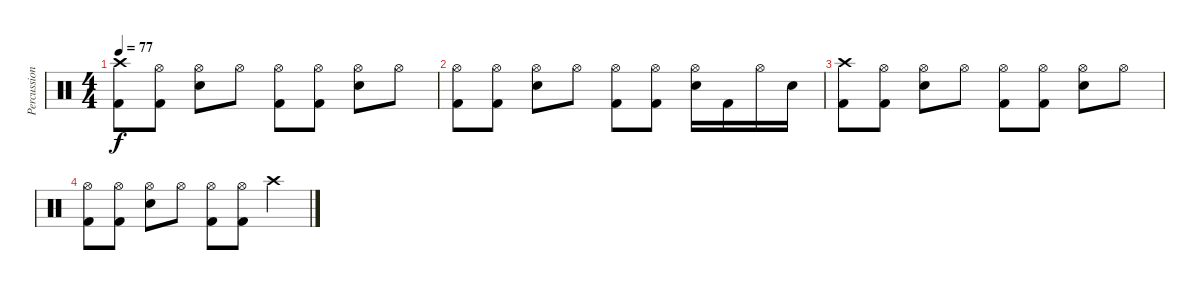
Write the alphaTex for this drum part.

\track ("Percussions" "Percussion") {instrument percussion}
\staff {score}
\articulation defaults
\ts (4 4)
\tempo 77
\clef neutral
\ks c
("Crash high (hit)" "Kick (hit) 2").8{dy f volume 4} ("Hi-Hat (open)" "Kick (hit) 2").8 ("Hi-Hat (open)" "Electric Snare (hit)").8 "Hi-Hat (open)".8 ("Hi-Hat (open)" "Kick (hit) 2").8{volume 3} ("Hi-Hat (open)" "Kick (hit) 2").8 ("Hi-Hat (open)" "Electric Snare (hit)").8 "Hi-Hat (open)".8 |
("Hi-Hat (open)" "Kick (hit) 2").8{volume 2} ("Hi-Hat (open)" "Kick (hit) 2").8 ("Hi-Hat (open)" "Electric Snare (hit)").8 "Hi-Hat (open)".8 ("Hi-Hat (open)" "Kick (hit) 2").8{volume 1} ("Hi-Hat (open)" "Kick (hit) 2").8 ("Hi-Hat (open)" "Electric Snare (hit)").16 "Kick (hit) 2".16 "Hi-Hat (open)".16 "Electric Snare (hit)".16 |
("Crash high (hit)" "Kick (hit) 2").8 ("Hi-Hat (open)" "Kick (hit) 2").8 ("Hi-Hat (open)" "Electric Snare (hit)").8 "Hi-Hat (open)".8 ("Hi-Hat (open)" "Kick (hit) 2").8 ("Hi-Hat (open)" "Kick (hit) 2").8 ("Hi-Hat (open)" "Electric Snare (hit)").8 "Hi-Hat (open)".8 |
("Hi-Hat (open)" "Kick (hit) 2").8 ("Hi-Hat (open)" "Kick (hit) 2").8 ("Hi-Hat (open)" "Electric Snare (hit)").8 "Hi-Hat (open)".8 ("Hi-Hat (open)" "Kick (hit) 2").8 ("Hi-Hat (open)" "Kick (hit) 2").8 "Crash high (hit)".4
